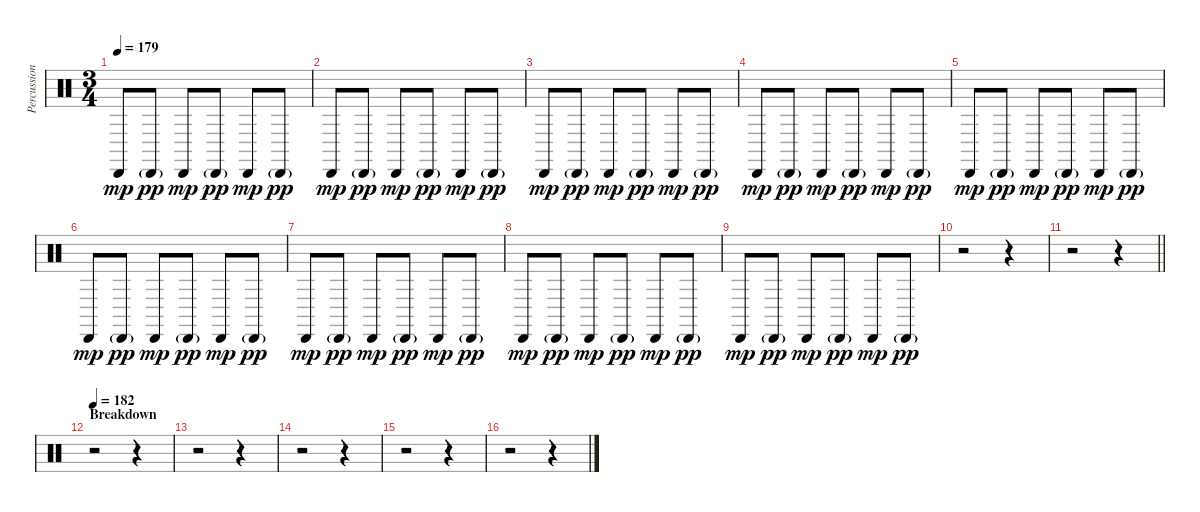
\track ("Percussion" "Percussion") {instrument percussion}
\staff {score}
\articulation defaults
\ts (3 4)
\tempo 179
\clef neutral
\ks c "Cabasa (hit)".8{dy mp} "Cabasa (hit)"{g}.8{dy pp} "Cabasa (hit)".8{dy mp} "Cabasa (hit)"{g}.8{dy pp} "Cabasa (hit)".8{dy mp} "Cabasa (hit)"{g}.8{dy pp}
|
"Cabasa (hit)".8{dy mp} "Cabasa (hit)"{g}.8{dy pp} "Cabasa (hit)".8{dy mp} "Cabasa (hit)"{g}.8{dy pp} "Cabasa (hit)".8{dy mp} "Cabasa (hit)"{g}.8{dy pp} |
"Cabasa (hit)".8{dy mp} "Cabasa (hit)"{g}.8{dy pp} "Cabasa (hit)".8{dy mp} "Cabasa (hit)"{g}.8{dy pp} "Cabasa (hit)".8{dy mp} "Cabasa (hit)"{g}.8{dy pp} |
"Cabasa (hit)".8{dy mp} "Cabasa (hit)"{g}.8{dy pp} "Cabasa (hit)".8{dy mp} "Cabasa (hit)"{g}.8{dy pp} "Cabasa (hit)".8{dy mp} "Cabasa (hit)"{g}.8{dy pp} |
"Cabasa (hit)".8{dy mp} "Cabasa (hit)"{g}.8{dy pp} "Cabasa (hit)".8{dy mp} "Cabasa (hit)"{g}.8{dy pp} "Cabasa (hit)".8{dy mp} "Cabasa (hit)"{g}.8{dy pp} |
"Cabasa (hit)".8{dy mp} "Cabasa (hit)"{g}.8{dy pp} "Cabasa (hit)".8{dy mp} "Cabasa (hit)"{g}.8{dy pp} "Cabasa (hit)".8{dy mp} "Cabasa (hit)"{g}.8{dy pp} |
"Cabasa (hit)".8{dy mp} "Cabasa (hit)"{g}.8{dy pp} "Cabasa (hit)".8{dy mp} "Cabasa (hit)"{g}.8{dy pp} "Cabasa (hit)".8{dy mp} "Cabasa (hit)"{g}.8{dy pp} |
"Cabasa (hit)".8{dy mp} "Cabasa (hit)"{g}.8{dy pp} "Cabasa (hit)".8{dy mp} "Cabasa (hit)"{g}.8{dy pp} "Cabasa (hit)".8{dy mp} "Cabasa (hit)"{g}.8{dy pp} |
"Cabasa (hit)".8{dy mp} "Cabasa (hit)"{g}.8{dy pp} "Cabasa (hit)".8{dy mp} "Cabasa (hit)"{g}.8{dy pp} "Cabasa (hit)".8{dy mp} "Cabasa (hit)"{g}.8{dy pp} |
r.2 r.4 |
\barLineRight lightlight
r.2 r.4 |
\section ("" "Breakdown")
\tempo 182
r.2 r.4 |
r.2 r.4 |
r.2 r.4 |
r.2 r.4 |
r.2 r.4
